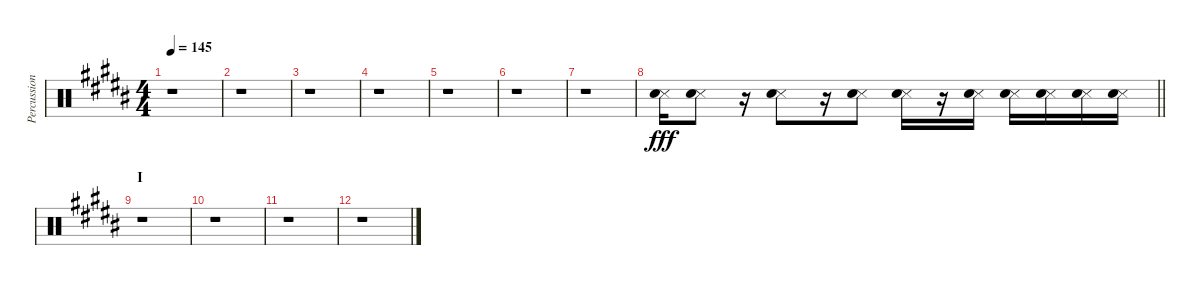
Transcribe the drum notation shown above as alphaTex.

\track ("Percussion" "Percussion") {instrument percussion}
\staff {score}
\articulation defaults
\ts (4 4)
\tempo 145
\clef neutral
\ks b
r.1{dy fff} |
r.1 |
r.1 |
r.1 |
r.1 |
r.1 |
r.1 |
\barLineRight lightlight
("Snare (side stick) 3" "Hand Clap (hit)").16 ("Snare (side stick) 3" "Hand Clap (hit)").8 r.16 ("Snare (side stick) 3" "Hand Clap (hit)").8 r.16 ("Snare (side stick) 3" "Hand Clap (hit)").8 ("Snare (side stick) 3" "Hand Clap (hit)").16 r.16 ("Snare (side stick) 3" "Hand Clap (hit)").16 ("Snare (side stick) 3" "Hand Clap (hit)").16 ("Snare (side stick) 3" "Hand Clap (hit)").16 ("Snare (side stick) 3" "Hand Clap (hit)").16 ("Snare (side stick) 3" "Hand Clap (hit)").16 |
\section ("" "I")
r.1 |
r.1 |
r.1 |
r.1
